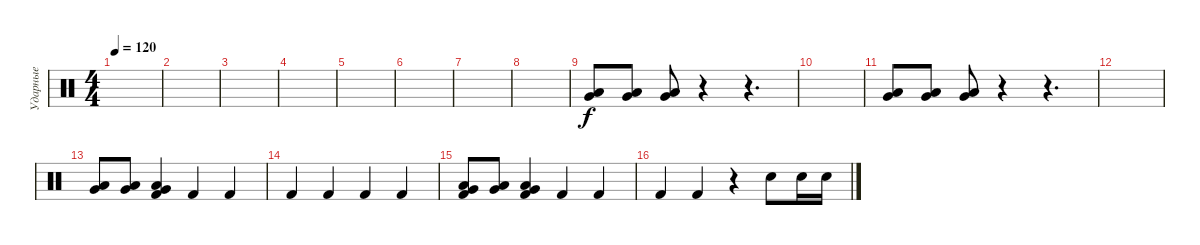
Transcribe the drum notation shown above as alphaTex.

\track ("Ударные" "Ударные") {instrument percussion}
\staff {score}
\articulation defaults
\ts (4 4)
\tempo 120
\clef neutral
\ks c
|
|
|
|
|
|
|
|
("Low Tom (hit)" "Very Low Tom (hit)").8 ("Low Tom (hit)" "Very Low Tom (hit)").8 ("Low Tom (hit)" "Very Low Tom (hit)").8 r.4 r.4{d} |
|
("Low Tom (hit)" "Very Low Tom (hit)").8 ("Low Tom (hit)" "Very Low Tom (hit)").8 ("Low Tom (hit)" "Very Low Tom (hit)").8 r.4 r.4{d} |
|
("Low Tom (hit)" "Very Low Tom (hit)").8 ("Low Tom (hit)" "Very Low Tom (hit)").8 ("Low Tom (hit)" "Very Low Tom (hit)" "Kick (hit) 2").4 "Kick (hit) 2".4 "Kick (hit) 2".4 |
"Kick (hit) 2".4 "Kick (hit) 2".4 "Kick (hit) 2".4 "Kick (hit) 2".4 |
("Low Tom (hit)" "Very Low Tom (hit)" "Kick (hit) 2").8 ("Low Tom (hit)" "Very Low Tom (hit)").8 ("Low Tom (hit)" "Very Low Tom (hit)" "Kick (hit) 2").4 "Kick (hit) 2".4 "Kick (hit) 2".4 |
"Kick (hit) 2".4 "Kick (hit) 2".4 r.4 "Electric Snare (hit)".8 "Electric Snare (hit)".16 "Electric Snare (hit)".16
